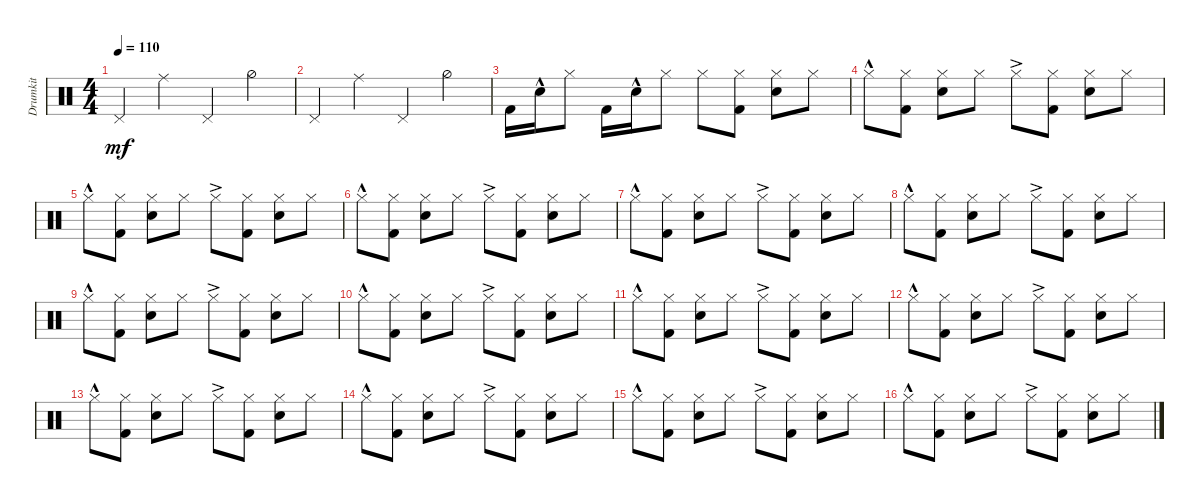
\track ("Drumkit" "Drumkit") {instrument percussion}
\staff {score}
\articulation defaults
\ts (4 4)
\tempo 110
\clef neutral
\ks c "Pedal Hi-Hat (hit)".4{dy mf} "Ride (middle)".4 "Pedal Hi-Hat (hit)".4 "Hi-Hat (half)".4
|
"Pedal Hi-Hat (hit)".4 "Ride (middle)".4 "Pedal Hi-Hat (hit)".4 "Hi-Hat (half)".4 |
"Kick (hit) 2".16 "Snare (hit) 2"{hac}.16 "Hi-Hat (closed)".8 "Kick (hit) 2".16 "Snare (hit) 2"{hac}.16 "Hi-Hat (closed)".8 "Hi-Hat (closed)".8 ("Hi-Hat (closed)" "Kick (hit) 2").8 ("Hi-Hat (closed)" "Snare (hit) 2").8 "Hi-Hat (closed)".8 |
"Hi-Hat (closed)"{hac}.8 ("Hi-Hat (closed)" "Kick (hit) 2").8 ("Hi-Hat (closed)" "Snare (hit) 2").8 "Hi-Hat (closed)".8 "Hi-Hat (closed)"{ac}.8 ("Hi-Hat (closed)" "Kick (hit) 2").8 ("Hi-Hat (closed)" "Snare (hit) 2").8 "Hi-Hat (closed)".8 |
"Hi-Hat (closed)"{hac}.8 ("Hi-Hat (closed)" "Kick (hit) 2").8 ("Hi-Hat (closed)" "Snare (hit) 2").8 "Hi-Hat (closed)".8 "Hi-Hat (closed)"{ac}.8 ("Hi-Hat (closed)" "Kick (hit) 2").8 ("Hi-Hat (closed)" "Snare (hit) 2").8 "Hi-Hat (closed)".8 |
"Hi-Hat (closed)"{hac}.8 ("Hi-Hat (closed)" "Kick (hit) 2").8 ("Hi-Hat (closed)" "Snare (hit) 2").8 "Hi-Hat (closed)".8 "Hi-Hat (closed)"{ac}.8 ("Hi-Hat (closed)" "Kick (hit) 2").8 ("Hi-Hat (closed)" "Snare (hit) 2").8 "Hi-Hat (closed)".8 |
"Hi-Hat (closed)"{hac}.8 ("Hi-Hat (closed)" "Kick (hit) 2").8 ("Hi-Hat (closed)" "Snare (hit) 2").8 "Hi-Hat (closed)".8 "Hi-Hat (closed)"{ac}.8 ("Hi-Hat (closed)" "Kick (hit) 2").8 ("Hi-Hat (closed)" "Snare (hit) 2").8 "Hi-Hat (closed)".8 |
"Hi-Hat (closed)"{hac}.8 ("Hi-Hat (closed)" "Kick (hit) 2").8 ("Hi-Hat (closed)" "Snare (hit) 2").8 "Hi-Hat (closed)".8 "Hi-Hat (closed)"{ac}.8 ("Hi-Hat (closed)" "Kick (hit) 2").8 ("Hi-Hat (closed)" "Snare (hit) 2").8 "Hi-Hat (closed)".8 |
"Hi-Hat (closed)"{hac}.8 ("Hi-Hat (closed)" "Kick (hit) 2").8 ("Hi-Hat (closed)" "Snare (hit) 2").8 "Hi-Hat (closed)".8 "Hi-Hat (closed)"{ac}.8 ("Hi-Hat (closed)" "Kick (hit) 2").8 ("Hi-Hat (closed)" "Snare (hit) 2").8 "Hi-Hat (closed)".8 |
"Hi-Hat (closed)"{hac}.8 ("Hi-Hat (closed)" "Kick (hit) 2").8 ("Hi-Hat (closed)" "Snare (hit) 2").8 "Hi-Hat (closed)".8 "Hi-Hat (closed)"{ac}.8 ("Hi-Hat (closed)" "Kick (hit) 2").8 ("Hi-Hat (closed)" "Snare (hit) 2").8 "Hi-Hat (closed)".8 |
"Hi-Hat (closed)"{hac}.8 ("Hi-Hat (closed)" "Kick (hit) 2").8 ("Hi-Hat (closed)" "Snare (hit) 2").8 "Hi-Hat (closed)".8 "Hi-Hat (closed)"{ac}.8 ("Hi-Hat (closed)" "Kick (hit) 2").8 ("Hi-Hat (closed)" "Snare (hit) 2").8 "Hi-Hat (closed)".8 |
"Hi-Hat (closed)"{hac}.8 ("Hi-Hat (closed)" "Kick (hit) 2").8 ("Hi-Hat (closed)" "Snare (hit) 2").8 "Hi-Hat (closed)".8 "Hi-Hat (closed)"{ac}.8 ("Hi-Hat (closed)" "Kick (hit) 2").8 ("Hi-Hat (closed)" "Snare (hit) 2").8 "Hi-Hat (closed)".8 |
"Hi-Hat (closed)"{hac}.8 ("Hi-Hat (closed)" "Kick (hit) 2").8 ("Hi-Hat (closed)" "Snare (hit) 2").8 "Hi-Hat (closed)".8 "Hi-Hat (closed)"{ac}.8 ("Hi-Hat (closed)" "Kick (hit) 2").8 ("Hi-Hat (closed)" "Snare (hit) 2").8 "Hi-Hat (closed)".8 |
"Hi-Hat (closed)"{hac}.8 ("Hi-Hat (closed)" "Kick (hit) 2").8 ("Hi-Hat (closed)" "Snare (hit) 2").8 "Hi-Hat (closed)".8 "Hi-Hat (closed)"{ac}.8 ("Hi-Hat (closed)" "Kick (hit) 2").8 ("Hi-Hat (closed)" "Snare (hit) 2").8 "Hi-Hat (closed)".8 |
"Hi-Hat (closed)"{hac}.8 ("Hi-Hat (closed)" "Kick (hit) 2").8 ("Hi-Hat (closed)" "Snare (hit) 2").8 "Hi-Hat (closed)".8 "Hi-Hat (closed)"{ac}.8 ("Hi-Hat (closed)" "Kick (hit) 2").8 ("Hi-Hat (closed)" "Snare (hit) 2").8 "Hi-Hat (closed)".8 |
"Hi-Hat (closed)"{hac}.8 ("Hi-Hat (closed)" "Kick (hit) 2").8 ("Hi-Hat (closed)" "Snare (hit) 2").8 "Hi-Hat (closed)".8 "Hi-Hat (closed)"{ac}.8 ("Hi-Hat (closed)" "Kick (hit) 2").8 ("Hi-Hat (closed)" "Snare (hit) 2").8 "Hi-Hat (closed)".8
